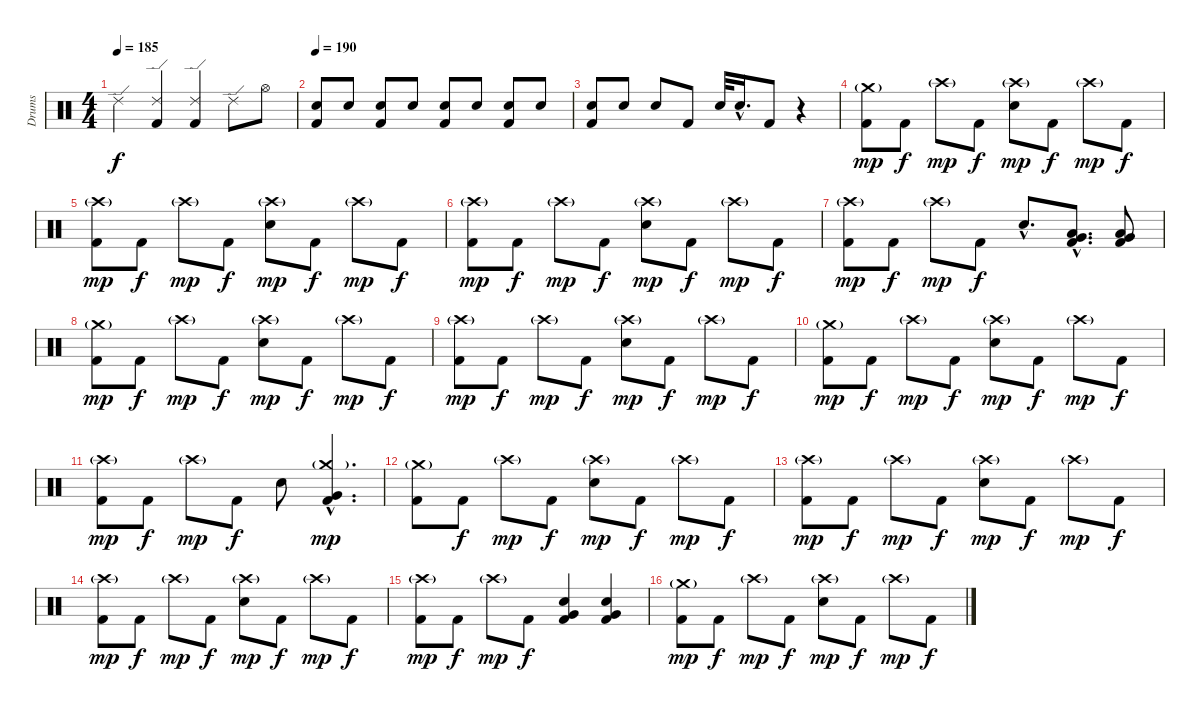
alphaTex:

\track ("Drums" "Drums") {instrument percussion}
\staff {score}
\articulation defaults
\ts (4 4)
\tempo 185
\clef neutral
\ks c "Ride (edge) 2".4{dy f}
("Ride (edge) 2" "Kick (hit) 2").4 ("Ride (edge) 2" "Kick (hit) 2").4 "Ride (edge) 2".8 "Hi-Hat (open)".8 |
\tempo 190
("Snare (hit) 2" "Kick (hit) 2").8 "Snare (hit) 2".8 ("Snare (hit) 2" "Kick (hit) 2").8 "Snare (hit) 2".8 ("Snare (hit) 2" "Kick (hit) 2").8 "Snare (hit) 2".8 ("Snare (hit) 2" "Kick (hit) 2").8 "Snare (hit) 2".8 |
("Snare (hit) 2" "Kick (hit) 2").8 "Snare (hit) 2".8 "Snare (hit) 2".8 "Kick (hit) 2".8 "Snare (hit) 2".32 "Snare (hit) 2"{hac}.16{d} "Kick (hit) 2".8 r.4 |
("Crash medium (hit)"{g} "Kick (hit) 2").8{dy mp} "Kick (hit) 2".8{dy f} "Crash high (hit)"{g}.8{dy mp} "Kick (hit) 2".8{dy f} ("Crash high (hit)"{g} "Snare (hit) 2").8{dy mp} "Kick (hit) 2".8{dy f} "Crash high (hit)"{g}.8{dy mp} "Kick (hit) 2".8{dy f} |
("Crash high (hit)"{g} "Kick (hit) 2").8{dy mp} "Kick (hit) 2".8{dy f} "Crash high (hit)"{g}.8{dy mp} "Kick (hit) 2".8{dy f} ("Crash high (hit)"{g} "Snare (hit) 2").8{dy mp} "Kick (hit) 2".8{dy f} "Crash high (hit)"{g}.8{dy mp} "Kick (hit) 2".8{dy f} |
("Crash high (hit)"{g} "Kick (hit) 2").8{dy mp} "Kick (hit) 2".8{dy f} "Crash high (hit)"{g}.8{dy mp} "Kick (hit) 2".8{dy f} ("Crash high (hit)"{g} "Snare (hit) 2").8{dy mp} "Kick (hit) 2".8{dy f} "Crash high (hit)"{g}.8{dy mp} "Kick (hit) 2".8{dy f} |
("Crash high (hit)"{g} "Kick (hit) 2").8{dy mp} "Kick (hit) 2".8{dy f} "Crash high (hit)"{g}.8{dy mp} "Kick (hit) 2".8{dy f} "Snare (hit) 2"{hac}.8{d} ("Low Tom (hit)"{hac} "Very Low Tom (hit)"{hac} "Kick (hit) 2"{hac}).8{d} ("Low Tom (hit)" "Very Low Tom (hit)" "Kick (hit) 2").8 |
("Crash medium (hit)"{g} "Kick (hit) 2").8{dy mp} "Kick (hit) 2".8{dy f} "Crash high (hit)"{g}.8{dy mp} "Kick (hit) 2".8{dy f} ("Crash high (hit)"{g} "Snare (hit) 2").8{dy mp} "Kick (hit) 2".8{dy f} "Crash high (hit)"{g}.8{dy mp} "Kick (hit) 2".8{dy f} |
("Crash high (hit)"{g} "Kick (hit) 2").8{dy mp} "Kick (hit) 2".8{dy f} "Crash high (hit)"{g}.8{dy mp} "Kick (hit) 2".8{dy f} ("Crash high (hit)"{g} "Snare (hit) 2").8{dy mp} "Kick (hit) 2".8{dy f} "Crash high (hit)"{g}.8{dy mp} "Kick (hit) 2".8{dy f} |
("Crash medium (hit)"{g} "Kick (hit) 2").8{dy mp} "Kick (hit) 2".8{dy f} "Crash high (hit)"{g}.8{dy mp} "Kick (hit) 2".8{dy f} ("Crash high (hit)"{g} "Snare (hit) 2").8{dy mp} "Kick (hit) 2".8{dy f} "Crash high (hit)"{g}.8{dy mp} "Kick (hit) 2".8{dy f} |
("Crash high (hit)"{g} "Kick (hit) 2").8{dy mp} "Kick (hit) 2".8{dy f} "Crash high (hit)"{g}.8{dy mp} "Kick (hit) 2".8{dy f} "Snare (hit) 2".8 ("Crash medium (hit)"{g hac} "Very Low Tom (hit)"{hac} "Kick (hit) 2"{hac}).4{d dy mp} |
("Crash medium (hit)"{g} "Kick (hit) 2").8 "Kick (hit) 2".8{dy f} "Crash high (hit)"{g}.8{dy mp} "Kick (hit) 2".8{dy f} ("Crash high (hit)"{g} "Snare (hit) 2").8{dy mp} "Kick (hit) 2".8{dy f} "Crash high (hit)"{g}.8{dy mp} "Kick (hit) 2".8{dy f} |
("Crash high (hit)"{g} "Kick (hit) 2").8{dy mp} "Kick (hit) 2".8{dy f} "Crash high (hit)"{g}.8{dy mp} "Kick (hit) 2".8{dy f} ("Crash high (hit)"{g} "Snare (hit) 2").8{dy mp} "Kick (hit) 2".8{dy f} "Crash high (hit)"{g}.8{dy mp} "Kick (hit) 2".8{dy f} |
("Crash high (hit)"{g} "Kick (hit) 2").8{dy mp} "Kick (hit) 2".8{dy f} "Crash high (hit)"{g}.8{dy mp} "Kick (hit) 2".8{dy f} ("Crash high (hit)"{g} "Snare (hit) 2").8{dy mp} "Kick (hit) 2".8{dy f} "Crash high (hit)"{g}.8{dy mp} "Kick (hit) 2".8{dy f} |
("Crash high (hit)"{g} "Kick (hit) 2").8{dy mp} "Kick (hit) 2".8{dy f} "Crash high (hit)"{g}.8{dy mp} "Kick (hit) 2".8{dy f} ("Snare (hit) 2" "Very Low Tom (hit)" "Kick (hit) 2").4 ("Snare (hit) 2" "Very Low Tom (hit)" "Kick (hit) 2").4 |
("Crash medium (hit)"{g} "Kick (hit) 2").8{dy mp} "Kick (hit) 2".8{dy f} "Crash high (hit)"{g}.8{dy mp} "Kick (hit) 2".8{dy f} ("Crash high (hit)"{g} "Snare (hit) 2").8{dy mp} "Kick (hit) 2".8{dy f} "Crash high (hit)"{g}.8{dy mp} "Kick (hit) 2".8{dy f}
